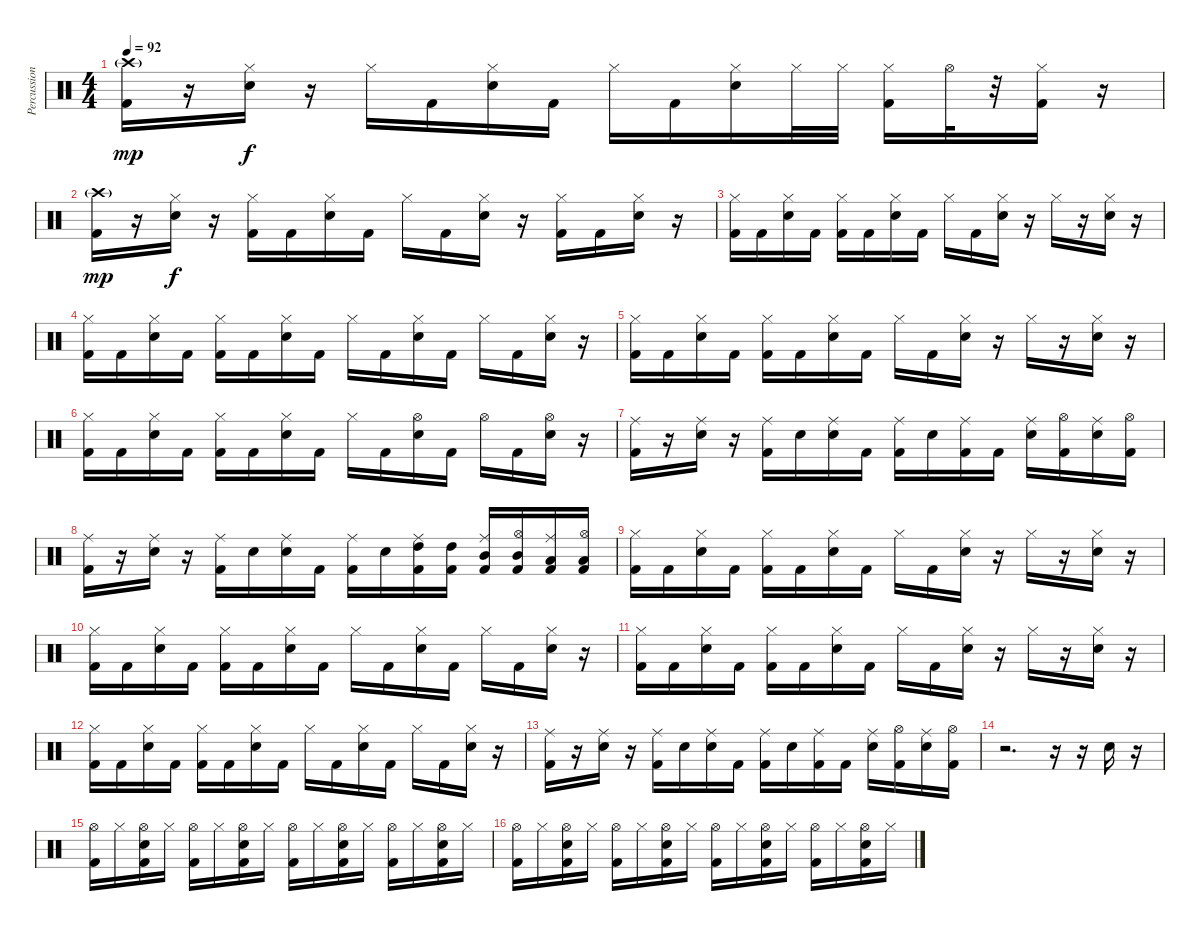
\track ("Percussion" "Percussion") {instrument percussion}
\staff {score}
\articulation defaults
\ts (4 4)
\tempo 92
\clef neutral
\ks c
("Crash high (hit)"{g} "Kick (hit) 2").16{dy mp} r.16 ("Hi-Hat (closed)" "Electric Snare (hit)").16{dy f} r.16 "Hi-Hat (closed)".16 "Kick (hit) 2".16 ("Hi-Hat (closed)" "Electric Snare (hit)").16 "Kick (hit) 2".16 "Hi-Hat (closed)".16 "Kick (hit) 2".16 ("Hi-Hat (closed)" "Electric Snare (hit)").16 "Hi-Hat (closed)".32 "Hi-Hat (closed)".32 ("Hi-Hat (closed)" "Kick (hit) 2").16 "Hi-Hat (open)".32 r.32 ("Hi-Hat (closed)" "Kick (hit) 2").16 r.16 |
("Crash high (hit)"{g} "Kick (hit) 2").16{dy mp} r.16 ("Hi-Hat (closed)" "Electric Snare (hit)").16{dy f} r.16 ("Hi-Hat (closed)" "Kick (hit) 2").16 "Kick (hit) 2".16 ("Hi-Hat (closed)" "Electric Snare (hit)").16 "Kick (hit) 2".16 "Hi-Hat (closed)".16 "Kick (hit) 2".16 ("Hi-Hat (closed)" "Electric Snare (hit)").16 r.16 ("Hi-Hat (closed)" "Kick (hit) 2").16 "Kick (hit) 2".16 ("Hi-Hat (closed)" "Electric Snare (hit)").16 r.16 |
("Hi-Hat (closed)" "Kick (hit) 2").16 "Kick (hit) 2".16 ("Hi-Hat (closed)" "Electric Snare (hit)").16 "Kick (hit) 2".16 ("Hi-Hat (closed)" "Kick (hit) 2").16 "Kick (hit) 2".16 ("Hi-Hat (closed)" "Electric Snare (hit)").16 "Kick (hit) 2".16 "Hi-Hat (closed)".16 "Kick (hit) 2".16 ("Hi-Hat (closed)" "Electric Snare (hit)").16 r.16 "Hi-Hat (closed)".16 r.16 ("Hi-Hat (closed)" "Electric Snare (hit)").16 r.16 |
("Hi-Hat (closed)" "Kick (hit) 2").16 "Kick (hit) 2".16 ("Hi-Hat (closed)" "Electric Snare (hit)").16 "Kick (hit) 2".16 ("Hi-Hat (closed)" "Kick (hit) 2").16 "Kick (hit) 2".16 ("Hi-Hat (closed)" "Electric Snare (hit)").16 "Kick (hit) 2".16 "Hi-Hat (closed)".16 "Kick (hit) 2".16 ("Hi-Hat (closed)" "Electric Snare (hit)").16 "Kick (hit) 2".16 "Hi-Hat (closed)".16 "Kick (hit) 2".16 ("Hi-Hat (closed)" "Electric Snare (hit)").16 r.16 |
("Hi-Hat (closed)" "Kick (hit) 2").16 "Kick (hit) 2".16 ("Hi-Hat (closed)" "Electric Snare (hit)").16 "Kick (hit) 2".16 ("Hi-Hat (closed)" "Kick (hit) 2").16 "Kick (hit) 2".16 ("Hi-Hat (closed)" "Electric Snare (hit)").16 "Kick (hit) 2".16 "Hi-Hat (closed)".16 "Kick (hit) 2".16 ("Hi-Hat (closed)" "Electric Snare (hit)").16 r.16 "Hi-Hat (closed)".16 r.16 ("Hi-Hat (closed)" "Electric Snare (hit)").16 r.16 |
("Hi-Hat (closed)" "Kick (hit) 2").16 "Kick (hit) 2".16 ("Hi-Hat (closed)" "Electric Snare (hit)").16 "Kick (hit) 2".16 ("Hi-Hat (closed)" "Kick (hit) 2").16 "Kick (hit) 2".16 ("Hi-Hat (closed)" "Electric Snare (hit)").16 "Kick (hit) 2".16 "Hi-Hat (closed)".16 "Kick (hit) 2".16 ("Hi-Hat (open)" "Electric Snare (hit)").16 "Kick (hit) 2".16 "Hi-Hat (open)".16 "Kick (hit) 2".16 ("Hi-Hat (open)" "Electric Snare (hit)").16 r.16 |
("Ride (middle)" "Kick (hit) 2").16 r.16 ("Ride (middle)" "Electric Snare (hit)").16 r.16 ("Ride (middle)" "Kick (hit) 2").16 "Electric Snare (hit)".16 ("Ride (middle)" "Electric Snare (hit)").16 "Kick (hit) 2".16 ("Ride (middle)" "Kick (hit) 2").16 "Electric Snare (hit)".16 ("Ride (middle)" "Kick (hit) 2").16 "Kick (hit) 2".16 ("Ride (middle)" "Electric Snare (hit)").16 ("Hi-Hat (open)" "Kick (hit) 2").16 ("Ride (middle)" "Electric Snare (hit)").16 ("Hi-Hat (open)" "Kick (hit) 2").16 |
("Ride (middle)" "Kick (hit) 2").16 r.16 ("Ride (middle)" "Electric Snare (hit)").16 r.16 ("Ride (middle)" "Kick (hit) 2").16 "Electric Snare (hit)".16 ("Ride (middle)" "Electric Snare (hit)").16 "Kick (hit) 2".16 ("Ride (middle)" "Kick (hit) 2").16 "Electric Snare (hit)".16 ("Ride (middle)" "High Tom (hit)" "Kick (hit) 2").16 ("High Tom (hit)" "Kick (hit) 2").16 ("Ride (middle)" "Mid Tom (hit)" "Kick (hit) 2").16 ("Hi-Hat (open)" "Mid Tom (hit)" "Kick (hit) 2").16 ("Ride (middle)" "Low Tom (hit)" "Kick (hit) 2").16 ("Hi-Hat (open)" "Low Tom (hit)" "Kick (hit) 2").16 |
("Hi-Hat (closed)" "Kick (hit) 2").16 "Kick (hit) 2".16 ("Hi-Hat (closed)" "Electric Snare (hit)").16 "Kick (hit) 2".16 ("Hi-Hat (closed)" "Kick (hit) 2").16 "Kick (hit) 2".16 ("Hi-Hat (closed)" "Electric Snare (hit)").16 "Kick (hit) 2".16 "Hi-Hat (closed)".16 "Kick (hit) 2".16 ("Hi-Hat (closed)" "Electric Snare (hit)").16 r.16 "Hi-Hat (closed)".16 r.16 ("Hi-Hat (closed)" "Electric Snare (hit)").16 r.16 |
("Hi-Hat (closed)" "Kick (hit) 2").16 "Kick (hit) 2".16 ("Hi-Hat (closed)" "Electric Snare (hit)").16 "Kick (hit) 2".16 ("Hi-Hat (closed)" "Kick (hit) 2").16 "Kick (hit) 2".16 ("Hi-Hat (closed)" "Electric Snare (hit)").16 "Kick (hit) 2".16 "Hi-Hat (closed)".16 "Kick (hit) 2".16 ("Hi-Hat (closed)" "Electric Snare (hit)").16 "Kick (hit) 2".16 "Hi-Hat (closed)".16 "Kick (hit) 2".16 ("Hi-Hat (closed)" "Electric Snare (hit)").16 r.16 |
("Hi-Hat (closed)" "Kick (hit) 2").16 "Kick (hit) 2".16 ("Hi-Hat (closed)" "Electric Snare (hit)").16 "Kick (hit) 2".16 ("Hi-Hat (closed)" "Kick (hit) 2").16 "Kick (hit) 2".16 ("Hi-Hat (closed)" "Electric Snare (hit)").16 "Kick (hit) 2".16 "Hi-Hat (closed)".16 "Kick (hit) 2".16 ("Hi-Hat (closed)" "Electric Snare (hit)").16 r.16 "Hi-Hat (closed)".16 r.16 ("Hi-Hat (closed)" "Electric Snare (hit)").16 r.16 |
("Hi-Hat (closed)" "Kick (hit) 2").16 "Kick (hit) 2".16 ("Hi-Hat (closed)" "Electric Snare (hit)").16 "Kick (hit) 2".16 ("Hi-Hat (closed)" "Kick (hit) 2").16 "Kick (hit) 2".16 ("Hi-Hat (closed)" "Electric Snare (hit)").16 "Kick (hit) 2".16 "Hi-Hat (closed)".16 "Kick (hit) 2".16 ("Hi-Hat (closed)" "Electric Snare (hit)").16 "Kick (hit) 2".16 "Hi-Hat (closed)".16 "Kick (hit) 2".16 ("Hi-Hat (closed)" "Electric Snare (hit)").16 r.16 |
("Ride (middle)" "Kick (hit) 2").16 r.16 ("Ride (middle)" "Electric Snare (hit)").16 r.16 ("Ride (middle)" "Kick (hit) 2").16 "Electric Snare (hit)".16 ("Ride (middle)" "Electric Snare (hit)").16 "Kick (hit) 2".16 ("Ride (middle)" "Kick (hit) 2").16 "Electric Snare (hit)".16 ("Ride (middle)" "Kick (hit) 2").16 "Kick (hit) 2".16 ("Ride (middle)" "Electric Snare (hit)").16 ("Hi-Hat (open)" "Kick (hit) 2").16 ("Ride (middle)" "Electric Snare (hit)").16 ("Hi-Hat (open)" "Kick (hit) 2").16 |
r.2{d} r.16 r.16 "Electric Snare (hit)".16 r.16 |
("Hi-Hat (open)" "Kick (hit) 2").16 "Hi-Hat (closed)".16 ("Hi-Hat (open)" "Electric Snare (hit)" "Kick (hit) 2").16 "Hi-Hat (closed)".16 ("Hi-Hat (open)" "Kick (hit) 2").16 "Hi-Hat (closed)".16 ("Hi-Hat (open)" "Electric Snare (hit)" "Kick (hit) 2").16 "Hi-Hat (closed)".16 ("Hi-Hat (open)" "Kick (hit) 2").16 "Hi-Hat (closed)".16 ("Hi-Hat (open)" "Electric Snare (hit)" "Kick (hit) 2").16 "Hi-Hat (closed)".16 ("Hi-Hat (open)" "Kick (hit) 2").16 "Hi-Hat (closed)".16 ("Hi-Hat (open)" "Electric Snare (hit)" "Kick (hit) 2").16 "Hi-Hat (closed)".16 |
("Hi-Hat (open)" "Kick (hit) 2").16 "Hi-Hat (closed)".16 ("Hi-Hat (open)" "Electric Snare (hit)" "Kick (hit) 2").16 "Hi-Hat (closed)".16 ("Hi-Hat (open)" "Kick (hit) 2").16 "Hi-Hat (closed)".16 ("Hi-Hat (open)" "Electric Snare (hit)" "Kick (hit) 2").16 "Hi-Hat (closed)".16 ("Hi-Hat (open)" "Kick (hit) 2").16 "Hi-Hat (closed)".16 ("Hi-Hat (open)" "Electric Snare (hit)" "Kick (hit) 2").16 "Hi-Hat (closed)".16 ("Hi-Hat (open)" "Kick (hit) 2").16 "Hi-Hat (closed)".16 ("Hi-Hat (open)" "Electric Snare (hit)" "Kick (hit) 2").16 "Hi-Hat (closed)".16
